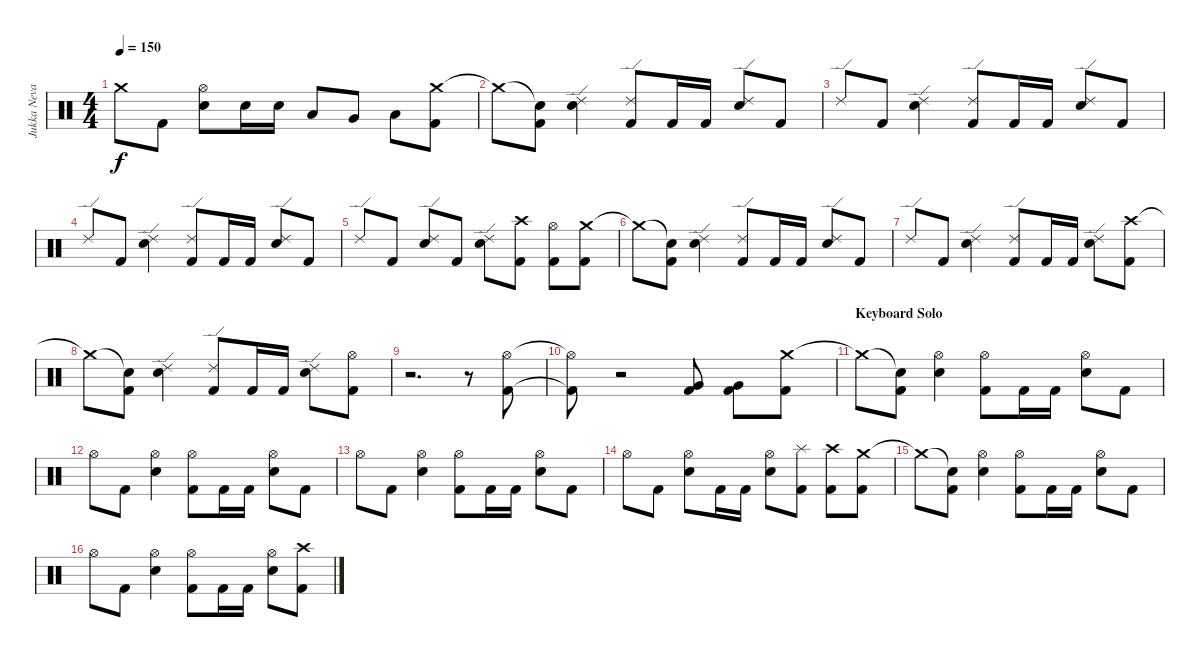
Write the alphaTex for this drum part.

\track ("Jukka Nevalainen" "Jukka Neva") {instrument percussion}
\staff {score}
\articulation defaults
\ts (4 4)
\tempo 150
\clef neutral
\ks c "Crash medium (hit)"{t}.8{dy f} "Kick (hit) 2".8
("Hi-Hat (open)" "Electric Snare (hit)").8 "Electric Snare (hit)".16 "Electric Snare (hit)".16 "Low Tom (hit)".8 "Very Low Tom (hit)".8 "Low Floor Tom (hit)".8 ("Crash medium (hit)" "Kick (hit) 2").8 |
"Crash medium (hit)"{t}.8 ("Snare (hit)"{t} "Kick (hit) 2").8 ("Ride (edge) 2" "Electric Snare (hit)").4 ("Ride (edge) 2" "Kick (hit) 2").8 "Kick (hit) 2".16 "Kick (hit) 2".16 ("Ride (edge) 2" "Electric Snare (hit)").8 "Kick (hit) 2".8 |
"Ride (edge) 2".8 "Kick (hit) 2".8 ("Ride (edge) 2" "Electric Snare (hit)").4 ("Ride (edge) 2" "Kick (hit) 2").8 "Kick (hit) 2".16 "Kick (hit) 2".16 ("Ride (edge) 2" "Electric Snare (hit)").8 "Kick (hit) 2".8 |
"Ride (edge) 2".8 "Kick (hit) 2".8 ("Ride (edge) 2" "Electric Snare (hit)").4 ("Ride (edge) 2" "Kick (hit) 2").8 "Kick (hit) 2".16 "Kick (hit) 2".16 ("Ride (edge) 2" "Electric Snare (hit)").8 "Kick (hit) 2".8 |
"Ride (edge) 2".8 "Kick (hit) 2".8 ("Ride (edge) 2" "Electric Snare (hit)").8 "Kick (hit) 2".8 ("Ride (edge) 2" "Electric Snare (hit)").8 ("Crash high (hit)" "Kick (hit) 2").8 ("Hi-Hat (open)" "Kick (hit) 2").8 ("Crash medium (hit)" "Kick (hit) 2").8 |
"Crash medium (hit)"{t}.8 ("Snare (hit)"{t} "Kick (hit) 2").8 ("Ride (edge) 2" "Electric Snare (hit)").4 ("Ride (edge) 2" "Kick (hit) 2").8 "Kick (hit) 2".16 "Kick (hit) 2".16 ("Ride (edge) 2" "Electric Snare (hit)").8 "Kick (hit) 2".8 |
"Ride (edge) 2".8 "Kick (hit) 2".8 ("Ride (edge) 2" "Electric Snare (hit)").4 ("Ride (edge) 2" "Kick (hit) 2").8 "Kick (hit) 2".16 "Kick (hit) 2".16 ("Ride (edge) 2" "Electric Snare (hit)").8 ("Crash high (hit)" "Kick (hit) 2").8 |
"Crash medium (hit)"{t}.8 ("Snare (hit)"{t} "Kick (hit) 2").8 ("Ride (edge) 2" "Electric Snare (hit)").4 ("Ride (edge) 2" "Kick (hit) 2").8 "Kick (hit) 2".16 "Kick (hit) 2".16 ("Ride (edge) 2" "Electric Snare (hit)").8 ("Hi-Hat (open)" "Kick (hit) 2").8 |
r.2{d} r.8 ("Hi-Hat (open)" "Kick (hit) 2").8 |
("Hi-Hat (open)"{t} "Kick (hit) 2"{t}).8 r.2 ("Very Low Tom (hit)" "Kick (hit) 2").8 ("Very Low Tom (hit)" "Kick (hit) 2").8 ("Crash medium (hit)" "Kick (hit) 2").8 |
\section ("" "Keyboard Solo")
"Crash medium (hit)"{t}.8 ("Snare (hit)"{t} "Kick (hit) 2").8 ("Hi-Hat (open)" "Electric Snare (hit)").4 ("Hi-Hat (open)" "Kick (hit) 2").8 "Kick (hit) 2".16 "Kick (hit) 2".16 ("Hi-Hat (open)" "Electric Snare (hit)").8 "Kick (hit) 2".8 |
"Hi-Hat (open)".8 "Kick (hit) 2".8 ("Hi-Hat (open)" "Electric Snare (hit)").4 ("Hi-Hat (open)" "Kick (hit) 2").8 "Kick (hit) 2".16 "Kick (hit) 2".16 ("Hi-Hat (open)" "Electric Snare (hit)").8 "Kick (hit) 2".8 |
"Hi-Hat (open)".8 "Kick (hit) 2".8 ("Hi-Hat (open)" "Electric Snare (hit)").4 ("Hi-Hat (open)" "Kick (hit) 2").8 "Kick (hit) 2".16 "Kick (hit) 2".16 ("Hi-Hat (open)" "Electric Snare (hit)").8 "Kick (hit) 2".8 |
"Hi-Hat (open)".8 "Kick (hit) 2".8 ("Hi-Hat (open)" "Electric Snare (hit)").8 "Kick (hit) 2".16 "Kick (hit) 2".16 ("Hi-Hat (open)" "Electric Snare (hit)").8 ("Splash (hit)" "Kick (hit) 2").8 ("Crash high (hit)" "Kick (hit) 2").8 ("Crash medium (hit)" "Kick (hit) 2").8 |
"Crash medium (hit)"{t}.8 ("Snare (hit)"{t} "Kick (hit) 2").8 ("Hi-Hat (open)" "Electric Snare (hit)").4 ("Hi-Hat (open)" "Kick (hit) 2").8 "Kick (hit) 2".16 "Kick (hit) 2".16 ("Hi-Hat (open)" "Electric Snare (hit)").8 "Kick (hit) 2".8 |
"Hi-Hat (open)".8 "Kick (hit) 2".8 ("Hi-Hat (open)" "Electric Snare (hit)").4 ("Hi-Hat (open)" "Kick (hit) 2").8 "Kick (hit) 2".16 "Kick (hit) 2".16 ("Hi-Hat (open)" "Electric Snare (hit)").8 ("Crash high (hit)" "Kick (hit) 2").8
